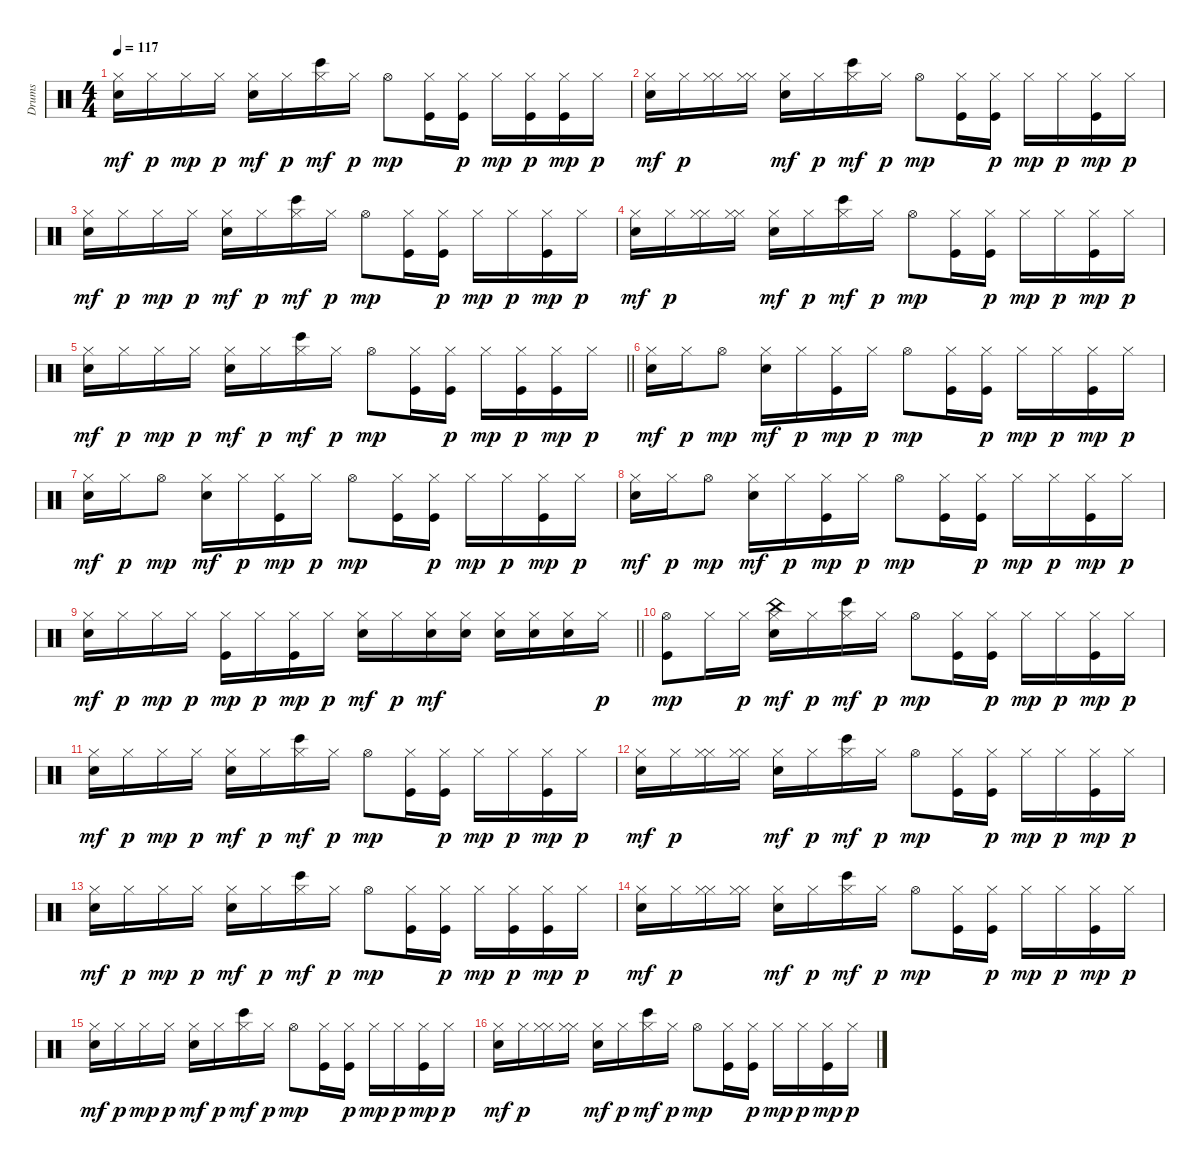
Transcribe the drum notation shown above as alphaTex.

\track ("Drums" "Drums") {instrument percussion}
\staff {score}
\articulation defaults
\ts (4 4)
\tempo 117
\clef neutral
\ks c
("Hi-Hat (closed)" "Electric Snare (hit)").16{dy mf} "Hi-Hat (closed)".16{dy p} "Hi-Hat (closed)".16{dy mp} "Hi-Hat (closed)".16{dy p} ("Hi-Hat (closed)" "Electric Snare (hit)").16{dy mf} "Hi-Hat (closed)".16{dy p} ("Hi-Hat (closed)" "Bongo High (hit)").16{dy mf} "Hi-Hat (closed)".16{dy p} "Hi-Hat (open)".8{dy mp} ("Hi-Hat (closed)" "Kick (hit)").16 ("Hi-Hat (closed)" "Kick (hit)").16{dy p} "Hi-Hat (closed)".16{dy mp} ("Hi-Hat (closed)" "Kick (hit)").16{dy p} ("Hi-Hat (closed)" "Kick (hit)").16{dy mp} "Hi-Hat (closed)".16{dy p} |
("Hi-Hat (closed)" "Electric Snare (hit)").16{dy mf} "Hi-Hat (closed)".16{dy p} ("Hi-Hat (closed)" "Hi-Hat (closed)").16 ("Hi-Hat (closed)" "Hi-Hat (closed)").16 ("Hi-Hat (closed)" "Electric Snare (hit)").16{dy mf} "Hi-Hat (closed)".16{dy p} ("Hi-Hat (closed)" "Bongo High (hit)").16{dy mf} "Hi-Hat (closed)".16{dy p} "Hi-Hat (open)".8{dy mp} ("Hi-Hat (closed)" "Kick (hit)").16 ("Hi-Hat (closed)" "Kick (hit)").16{dy p} "Hi-Hat (closed)".16{dy mp} "Hi-Hat (closed)".16{dy p} ("Hi-Hat (closed)" "Kick (hit)").16{dy mp} "Hi-Hat (closed)".16{dy p} |
("Hi-Hat (closed)" "Electric Snare (hit)").16{dy mf} "Hi-Hat (closed)".16{dy p} "Hi-Hat (closed)".16{dy mp} "Hi-Hat (closed)".16{dy p} ("Hi-Hat (closed)" "Electric Snare (hit)").16{dy mf} "Hi-Hat (closed)".16{dy p} ("Hi-Hat (closed)" "Bongo High (hit)").16{dy mf} "Hi-Hat (closed)".16{dy p} "Hi-Hat (open)".8{dy mp} ("Hi-Hat (closed)" "Kick (hit)").16 ("Hi-Hat (closed)" "Kick (hit)").16{dy p} "Hi-Hat (closed)".16{dy mp} "Hi-Hat (closed)".16{dy p} ("Hi-Hat (closed)" "Kick (hit)").16{dy mp} "Hi-Hat (closed)".16{dy p} |
("Hi-Hat (closed)" "Electric Snare (hit)").16{dy mf} "Hi-Hat (closed)".16{dy p} ("Hi-Hat (closed)" "Hi-Hat (closed)").16 ("Hi-Hat (closed)" "Hi-Hat (closed)").16 ("Hi-Hat (closed)" "Electric Snare (hit)").16{dy mf} "Hi-Hat (closed)".16{dy p} ("Hi-Hat (closed)" "Bongo High (hit)").16{dy mf} "Hi-Hat (closed)".16{dy p} "Hi-Hat (open)".8{dy mp} ("Hi-Hat (closed)" "Kick (hit)").16 ("Hi-Hat (closed)" "Kick (hit)").16{dy p} "Hi-Hat (closed)".16{dy mp} "Hi-Hat (closed)".16{dy p} ("Hi-Hat (closed)" "Kick (hit)").16{dy mp} "Hi-Hat (closed)".16{dy p} |
\barLineRight lightlight
("Hi-Hat (closed)" "Electric Snare (hit)").16{dy mf} "Hi-Hat (closed)".16{dy p} "Hi-Hat (closed)".16{dy mp} "Hi-Hat (closed)".16{dy p} ("Hi-Hat (closed)" "Electric Snare (hit)").16{dy mf} "Hi-Hat (closed)".16{dy p} ("Hi-Hat (closed)" "Bongo High (hit)").16{dy mf} "Hi-Hat (closed)".16{dy p} "Hi-Hat (open)".8{dy mp} ("Hi-Hat (closed)" "Kick (hit)").16 ("Hi-Hat (closed)" "Kick (hit)").16{dy p} "Hi-Hat (closed)".16{dy mp} ("Hi-Hat (closed)" "Kick (hit)").16{dy p} ("Hi-Hat (closed)" "Kick (hit)").16{dy mp} "Hi-Hat (closed)".16{dy p} |
("Hi-Hat (closed)" "Electric Snare (hit)").16{dy mf} "Hi-Hat (closed)".16{dy p} "Hi-Hat (open)".8{dy mp} ("Hi-Hat (closed)" "Electric Snare (hit)").16{dy mf} "Hi-Hat (closed)".16{dy p} ("Hi-Hat (closed)" "Kick (hit)").16{dy mp} "Hi-Hat (closed)".16{dy p} "Hi-Hat (open)".8{dy mp} ("Hi-Hat (closed)" "Kick (hit)").16 ("Hi-Hat (closed)" "Kick (hit)").16{dy p} "Hi-Hat (closed)".16{dy mp} "Hi-Hat (closed)".16{dy p} ("Hi-Hat (closed)" "Kick (hit)").16{dy mp} "Hi-Hat (closed)".16{dy p} |
("Hi-Hat (closed)" "Electric Snare (hit)").16{dy mf} "Hi-Hat (closed)".16{dy p} "Hi-Hat (open)".8{dy mp} ("Hi-Hat (closed)" "Electric Snare (hit)").16{dy mf} "Hi-Hat (closed)".16{dy p} ("Hi-Hat (closed)" "Kick (hit)").16{dy mp} "Hi-Hat (closed)".16{dy p} "Hi-Hat (open)".8{dy mp} ("Hi-Hat (closed)" "Kick (hit)").16 ("Hi-Hat (closed)" "Kick (hit)").16{dy p} "Hi-Hat (closed)".16{dy mp} "Hi-Hat (closed)".16{dy p} ("Hi-Hat (closed)" "Kick (hit)").16{dy mp} "Hi-Hat (closed)".16{dy p} |
("Hi-Hat (closed)" "Electric Snare (hit)").16{dy mf} "Hi-Hat (closed)".16{dy p} "Hi-Hat (open)".8{dy mp} ("Hi-Hat (closed)" "Electric Snare (hit)").16{dy mf} "Hi-Hat (closed)".16{dy p} ("Hi-Hat (closed)" "Kick (hit)").16{dy mp} "Hi-Hat (closed)".16{dy p} "Hi-Hat (open)".8{dy mp} ("Hi-Hat (closed)" "Kick (hit)").16 ("Hi-Hat (closed)" "Kick (hit)").16{dy p} "Hi-Hat (closed)".16{dy mp} "Hi-Hat (closed)".16{dy p} ("Hi-Hat (closed)" "Kick (hit)").16{dy mp} "Hi-Hat (closed)".16{dy p} |
\barLineRight lightlight
("Hi-Hat (closed)" "Electric Snare (hit)").16{dy mf} "Hi-Hat (closed)".16{dy p} "Hi-Hat (closed)".16{dy mp} "Hi-Hat (closed)".16{dy p} ("Hi-Hat (closed)" "Kick (hit)").16{dy mp} "Hi-Hat (closed)".16{dy p} ("Hi-Hat (closed)" "Kick (hit)").16{dy mp} "Hi-Hat (closed)".16{dy p} ("Hi-Hat (closed)" "Electric Snare (hit)").16{dy mf} "Hi-Hat (closed)".16{dy p} ("Hi-Hat (closed)" "Electric Snare (hit)").16{dy mf} ("Hi-Hat (closed)" "Electric Snare (hit)").16 ("Hi-Hat (closed)" "Electric Snare (hit)").16 ("Hi-Hat (closed)" "Electric Snare (hit)").16 ("Hi-Hat (closed)" "Electric Snare (hit)").16 "Hi-Hat (closed)".16{dy p} |
("Hi-Hat (open)" "Kick (hit)").8{dy mp} "Hi-Hat (closed)".16 "Hi-Hat (closed)".16{dy p} ("Hi-Hat (closed)" "China (hit)" "Electric Snare (hit)").16{dy mf} "Hi-Hat (closed)".16{dy p} ("Hi-Hat (closed)" "Bongo High (hit)").16{dy mf} "Hi-Hat (closed)".16{dy p} "Hi-Hat (open)".8{dy mp} ("Hi-Hat (closed)" "Kick (hit)").16 ("Hi-Hat (closed)" "Kick (hit)").16{dy p} "Hi-Hat (closed)".16{dy mp} "Hi-Hat (closed)".16{dy p} ("Hi-Hat (closed)" "Kick (hit)").16{dy mp} "Hi-Hat (closed)".16{dy p} |
("Hi-Hat (closed)" "Electric Snare (hit)").16{dy mf} "Hi-Hat (closed)".16{dy p} "Hi-Hat (closed)".16{dy mp} "Hi-Hat (closed)".16{dy p} ("Hi-Hat (closed)" "Electric Snare (hit)").16{dy mf} "Hi-Hat (closed)".16{dy p} ("Hi-Hat (closed)" "Bongo High (hit)").16{dy mf} "Hi-Hat (closed)".16{dy p} "Hi-Hat (open)".8{dy mp} ("Hi-Hat (closed)" "Kick (hit)").16 ("Hi-Hat (closed)" "Kick (hit)").16{dy p} "Hi-Hat (closed)".16{dy mp} "Hi-Hat (closed)".16{dy p} ("Hi-Hat (closed)" "Kick (hit)").16{dy mp} "Hi-Hat (closed)".16{dy p} |
("Hi-Hat (closed)" "Electric Snare (hit)").16{dy mf} "Hi-Hat (closed)".16{dy p} ("Hi-Hat (closed)" "Hi-Hat (closed)").16 ("Hi-Hat (closed)" "Hi-Hat (closed)").16 ("Hi-Hat (closed)" "Electric Snare (hit)").16{dy mf} "Hi-Hat (closed)".16{dy p} ("Hi-Hat (closed)" "Bongo High (hit)").16{dy mf} "Hi-Hat (closed)".16{dy p} "Hi-Hat (open)".8{dy mp} ("Hi-Hat (closed)" "Kick (hit)").16 ("Hi-Hat (closed)" "Kick (hit)").16{dy p} "Hi-Hat (closed)".16{dy mp} "Hi-Hat (closed)".16{dy p} ("Hi-Hat (closed)" "Kick (hit)").16{dy mp} "Hi-Hat (closed)".16{dy p} |
("Hi-Hat (closed)" "Electric Snare (hit)").16{dy mf} "Hi-Hat (closed)".16{dy p} "Hi-Hat (closed)".16{dy mp} "Hi-Hat (closed)".16{dy p} ("Hi-Hat (closed)" "Electric Snare (hit)").16{dy mf} "Hi-Hat (closed)".16{dy p} ("Hi-Hat (closed)" "Bongo High (hit)").16{dy mf} "Hi-Hat (closed)".16{dy p} "Hi-Hat (open)".8{dy mp} ("Hi-Hat (closed)" "Kick (hit)").16 ("Hi-Hat (closed)" "Kick (hit)").16{dy p} "Hi-Hat (closed)".16{dy mp} ("Hi-Hat (closed)" "Kick (hit)").16{dy p} ("Hi-Hat (closed)" "Kick (hit)").16{dy mp} "Hi-Hat (closed)".16{dy p} |
("Hi-Hat (closed)" "Electric Snare (hit)").16{dy mf} "Hi-Hat (closed)".16{dy p} ("Hi-Hat (closed)" "Hi-Hat (closed)").16 ("Hi-Hat (closed)" "Hi-Hat (closed)").16 ("Hi-Hat (closed)" "Electric Snare (hit)").16{dy mf} "Hi-Hat (closed)".16{dy p} ("Hi-Hat (closed)" "Bongo High (hit)").16{dy mf} "Hi-Hat (closed)".16{dy p} "Hi-Hat (open)".8{dy mp} ("Hi-Hat (closed)" "Kick (hit)").16 ("Hi-Hat (closed)" "Kick (hit)").16{dy p} "Hi-Hat (closed)".16{dy mp} "Hi-Hat (closed)".16{dy p} ("Hi-Hat (closed)" "Kick (hit)").16{dy mp} "Hi-Hat (closed)".16{dy p} |
("Hi-Hat (closed)" "Electric Snare (hit)").16{dy mf} "Hi-Hat (closed)".16{dy p} "Hi-Hat (closed)".16{dy mp} "Hi-Hat (closed)".16{dy p} ("Hi-Hat (closed)" "Electric Snare (hit)").16{dy mf} "Hi-Hat (closed)".16{dy p} ("Hi-Hat (closed)" "Bongo High (hit)").16{dy mf} "Hi-Hat (closed)".16{dy p} "Hi-Hat (open)".8{dy mp} ("Hi-Hat (closed)" "Kick (hit)").16 ("Hi-Hat (closed)" "Kick (hit)").16{dy p} "Hi-Hat (closed)".16{dy mp} "Hi-Hat (closed)".16{dy p} ("Hi-Hat (closed)" "Kick (hit)").16{dy mp} "Hi-Hat (closed)".16{dy p} |
("Hi-Hat (closed)" "Electric Snare (hit)").16{dy mf} "Hi-Hat (closed)".16{dy p} ("Hi-Hat (closed)" "Hi-Hat (closed)").16 ("Hi-Hat (closed)" "Hi-Hat (closed)").16 ("Hi-Hat (closed)" "Electric Snare (hit)").16{dy mf} "Hi-Hat (closed)".16{dy p} ("Hi-Hat (closed)" "Bongo High (hit)").16{dy mf} "Hi-Hat (closed)".16{dy p} "Hi-Hat (open)".8{dy mp} ("Hi-Hat (closed)" "Kick (hit)").16 ("Hi-Hat (closed)" "Kick (hit)").16{dy p} "Hi-Hat (closed)".16{dy mp} "Hi-Hat (closed)".16{dy p} ("Hi-Hat (closed)" "Kick (hit)").16{dy mp} "Hi-Hat (closed)".16{dy p}
